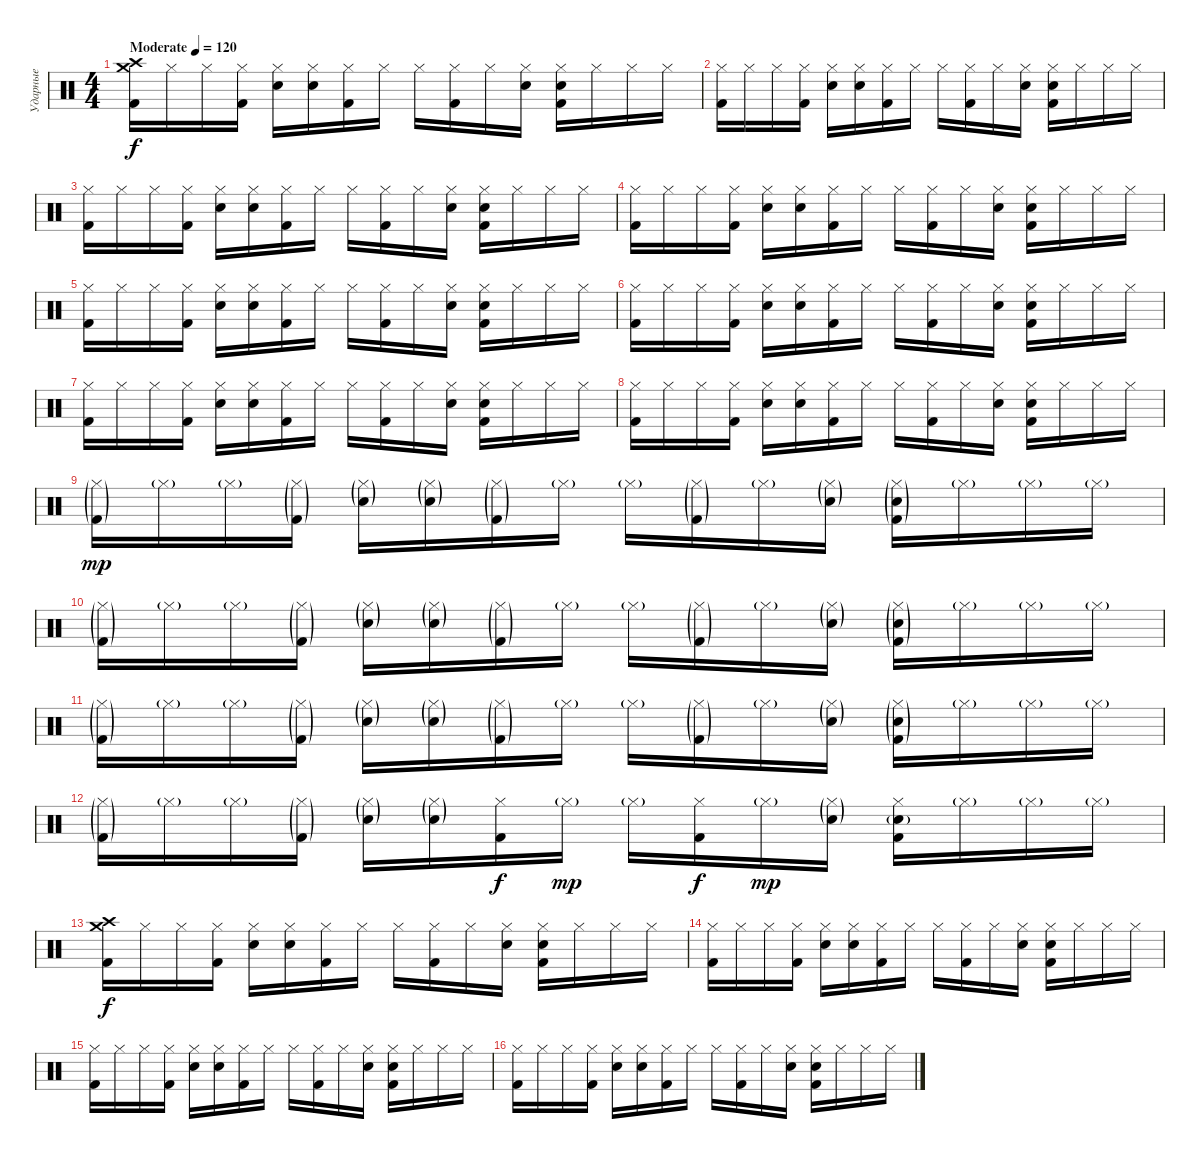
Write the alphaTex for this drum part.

\track ("Ударные" "Ударные") {instrument percussion}
\staff {score}
\articulation defaults
\ts (4 4)
\tempo (120 "Moderate")
\clef neutral
\ks c
("Kick (hit) 2" "Crash high (hit)" "Crash medium (hit)").16{dy f} "Hi-Hat (closed)".16 "Hi-Hat (closed)".16 ("Kick (hit) 2" "Hi-Hat (closed)").16 ("Hi-Hat (closed)" "Electric Snare (hit)").16 ("Hi-Hat (closed)" "Electric Snare (hit)").16 ("Kick (hit) 2" "Hi-Hat (closed)").16 "Hi-Hat (closed)".16 "Hi-Hat (closed)".16 ("Kick (hit) 2" "Hi-Hat (closed)").16 "Hi-Hat (closed)".16 ("Hi-Hat (closed)" "Electric Snare (hit)").16 ("Kick (hit) 2" "Hi-Hat (closed)" "Electric Snare (hit)").16 "Hi-Hat (closed)".16 "Hi-Hat (closed)".16 "Hi-Hat (closed)".16 |
("Kick (hit) 2" "Hi-Hat (closed)").16 "Hi-Hat (closed)".16 "Hi-Hat (closed)".16 ("Kick (hit) 2" "Hi-Hat (closed)").16 ("Hi-Hat (closed)" "Electric Snare (hit)").16 ("Hi-Hat (closed)" "Electric Snare (hit)").16 ("Kick (hit) 2" "Hi-Hat (closed)").16 "Hi-Hat (closed)".16 "Hi-Hat (closed)".16 ("Kick (hit) 2" "Hi-Hat (closed)").16 "Hi-Hat (closed)".16 ("Hi-Hat (closed)" "Electric Snare (hit)").16 ("Kick (hit) 2" "Hi-Hat (closed)" "Electric Snare (hit)").16 "Hi-Hat (closed)".16 "Hi-Hat (closed)".16 "Hi-Hat (closed)".16 |
("Kick (hit) 2" "Hi-Hat (closed)").16 "Hi-Hat (closed)".16 "Hi-Hat (closed)".16 ("Kick (hit) 2" "Hi-Hat (closed)").16 ("Hi-Hat (closed)" "Electric Snare (hit)").16 ("Hi-Hat (closed)" "Electric Snare (hit)").16 ("Kick (hit) 2" "Hi-Hat (closed)").16 "Hi-Hat (closed)".16 "Hi-Hat (closed)".16 ("Kick (hit) 2" "Hi-Hat (closed)").16 "Hi-Hat (closed)".16 ("Hi-Hat (closed)" "Electric Snare (hit)").16 ("Kick (hit) 2" "Hi-Hat (closed)" "Electric Snare (hit)").16 "Hi-Hat (closed)".16 "Hi-Hat (closed)".16 "Hi-Hat (closed)".16 |
("Kick (hit) 2" "Hi-Hat (closed)").16 "Hi-Hat (closed)".16 "Hi-Hat (closed)".16 ("Kick (hit) 2" "Hi-Hat (closed)").16 ("Hi-Hat (closed)" "Electric Snare (hit)").16 ("Hi-Hat (closed)" "Electric Snare (hit)").16 ("Kick (hit) 2" "Hi-Hat (closed)").16 "Hi-Hat (closed)".16 "Hi-Hat (closed)".16 ("Kick (hit) 2" "Hi-Hat (closed)").16 "Hi-Hat (closed)".16 ("Hi-Hat (closed)" "Electric Snare (hit)").16 ("Kick (hit) 2" "Hi-Hat (closed)" "Electric Snare (hit)").16 "Hi-Hat (closed)".16 "Hi-Hat (closed)".16 "Hi-Hat (closed)".16 |
("Kick (hit) 2" "Hi-Hat (closed)").16 "Hi-Hat (closed)".16 "Hi-Hat (closed)".16 ("Kick (hit) 2" "Hi-Hat (closed)").16 ("Hi-Hat (closed)" "Electric Snare (hit)").16 ("Hi-Hat (closed)" "Electric Snare (hit)").16 ("Kick (hit) 2" "Hi-Hat (closed)").16 "Hi-Hat (closed)".16 "Hi-Hat (closed)".16 ("Kick (hit) 2" "Hi-Hat (closed)").16 "Hi-Hat (closed)".16 ("Hi-Hat (closed)" "Electric Snare (hit)").16 ("Kick (hit) 2" "Hi-Hat (closed)" "Electric Snare (hit)").16 "Hi-Hat (closed)".16 "Hi-Hat (closed)".16 "Hi-Hat (closed)".16 |
("Kick (hit) 2" "Hi-Hat (closed)").16 "Hi-Hat (closed)".16 "Hi-Hat (closed)".16 ("Kick (hit) 2" "Hi-Hat (closed)").16 ("Hi-Hat (closed)" "Electric Snare (hit)").16 ("Hi-Hat (closed)" "Electric Snare (hit)").16 ("Kick (hit) 2" "Hi-Hat (closed)").16 "Hi-Hat (closed)".16 "Hi-Hat (closed)".16 ("Kick (hit) 2" "Hi-Hat (closed)").16 "Hi-Hat (closed)".16 ("Hi-Hat (closed)" "Electric Snare (hit)").16 ("Kick (hit) 2" "Hi-Hat (closed)" "Electric Snare (hit)").16 "Hi-Hat (closed)".16 "Hi-Hat (closed)".16 "Hi-Hat (closed)".16 |
("Kick (hit) 2" "Hi-Hat (closed)").16 "Hi-Hat (closed)".16 "Hi-Hat (closed)".16 ("Kick (hit) 2" "Hi-Hat (closed)").16 ("Hi-Hat (closed)" "Electric Snare (hit)").16 ("Hi-Hat (closed)" "Electric Snare (hit)").16 ("Kick (hit) 2" "Hi-Hat (closed)").16 "Hi-Hat (closed)".16 "Hi-Hat (closed)".16 ("Kick (hit) 2" "Hi-Hat (closed)").16 "Hi-Hat (closed)".16 ("Hi-Hat (closed)" "Electric Snare (hit)").16 ("Kick (hit) 2" "Hi-Hat (closed)" "Electric Snare (hit)").16 "Hi-Hat (closed)".16 "Hi-Hat (closed)".16 "Hi-Hat (closed)".16 |
("Kick (hit) 2" "Hi-Hat (closed)").16 "Hi-Hat (closed)".16 "Hi-Hat (closed)".16 ("Kick (hit) 2" "Hi-Hat (closed)").16 ("Hi-Hat (closed)" "Electric Snare (hit)").16 ("Hi-Hat (closed)" "Electric Snare (hit)").16 ("Kick (hit) 2" "Hi-Hat (closed)").16 "Hi-Hat (closed)".16 "Hi-Hat (closed)".16 ("Kick (hit) 2" "Hi-Hat (closed)").16 "Hi-Hat (closed)".16 ("Hi-Hat (closed)" "Electric Snare (hit)").16 ("Kick (hit) 2" "Hi-Hat (closed)" "Electric Snare (hit)").16 "Hi-Hat (closed)".16 "Hi-Hat (closed)".16 "Hi-Hat (closed)".16 |
("Kick (hit) 2"{g} "Hi-Hat (closed)"{g}).16{dy mp} "Hi-Hat (closed)"{g}.16 "Hi-Hat (closed)"{g}.16 ("Kick (hit) 2"{g} "Hi-Hat (closed)"{g}).16 ("Hi-Hat (closed)"{g} "Electric Snare (hit)"{g}).16 ("Hi-Hat (closed)"{g} "Electric Snare (hit)"{g}).16 ("Kick (hit) 2"{g} "Hi-Hat (closed)"{g}).16 "Hi-Hat (closed)"{g}.16 "Hi-Hat (closed)"{g}.16 ("Kick (hit) 2"{g} "Hi-Hat (closed)"{g}).16 "Hi-Hat (closed)"{g}.16 ("Hi-Hat (closed)"{g} "Electric Snare (hit)"{g}).16 ("Kick (hit) 2"{g} "Hi-Hat (closed)"{g} "Electric Snare (hit)"{g}).16 "Hi-Hat (closed)"{g}.16 "Hi-Hat (closed)"{g}.16 "Hi-Hat (closed)"{g}.16 |
("Kick (hit) 2"{g} "Hi-Hat (closed)"{g}).16 "Hi-Hat (closed)"{g}.16 "Hi-Hat (closed)"{g}.16 ("Kick (hit) 2"{g} "Hi-Hat (closed)"{g}).16 ("Hi-Hat (closed)"{g} "Electric Snare (hit)"{g}).16 ("Hi-Hat (closed)"{g} "Electric Snare (hit)"{g}).16 ("Kick (hit) 2"{g} "Hi-Hat (closed)"{g}).16 "Hi-Hat (closed)"{g}.16 "Hi-Hat (closed)"{g}.16 ("Kick (hit) 2"{g} "Hi-Hat (closed)"{g}).16 "Hi-Hat (closed)"{g}.16 ("Hi-Hat (closed)"{g} "Electric Snare (hit)"{g}).16 ("Kick (hit) 2"{g} "Hi-Hat (closed)"{g} "Electric Snare (hit)"{g}).16 "Hi-Hat (closed)"{g}.16 "Hi-Hat (closed)"{g}.16 "Hi-Hat (closed)"{g}.16 |
("Kick (hit) 2"{g} "Hi-Hat (closed)"{g}).16 "Hi-Hat (closed)"{g}.16 "Hi-Hat (closed)"{g}.16 ("Kick (hit) 2"{g} "Hi-Hat (closed)"{g}).16 ("Hi-Hat (closed)"{g} "Electric Snare (hit)"{g}).16 ("Hi-Hat (closed)"{g} "Electric Snare (hit)"{g}).16 ("Kick (hit) 2"{g} "Hi-Hat (closed)"{g}).16 "Hi-Hat (closed)"{g}.16 "Hi-Hat (closed)"{g}.16 ("Kick (hit) 2"{g} "Hi-Hat (closed)"{g}).16 "Hi-Hat (closed)"{g}.16 ("Hi-Hat (closed)"{g} "Electric Snare (hit)"{g}).16 ("Kick (hit) 2"{g} "Hi-Hat (closed)"{g} "Electric Snare (hit)"{g}).16 "Hi-Hat (closed)"{g}.16 "Hi-Hat (closed)"{g}.16 "Hi-Hat (closed)"{g}.16 |
("Kick (hit) 2"{g} "Hi-Hat (closed)"{g}).16 "Hi-Hat (closed)"{g}.16 "Hi-Hat (closed)"{g}.16 ("Kick (hit) 2"{g} "Hi-Hat (closed)"{g}).16 ("Hi-Hat (closed)"{g} "Electric Snare (hit)"{g}).16 ("Hi-Hat (closed)"{g} "Electric Snare (hit)"{g}).16 ("Kick (hit) 2" "Hi-Hat (closed)").16{dy f} "Hi-Hat (closed)"{g}.16{dy mp} "Hi-Hat (closed)"{g}.16 ("Kick (hit) 2" "Hi-Hat (closed)").16{dy f} "Hi-Hat (closed)"{g}.16{dy mp} ("Hi-Hat (closed)"{g} "Electric Snare (hit)"{g}).16 ("Kick (hit) 2" "Hi-Hat (closed)" "Electric Snare (hit)"{g}).16 "Hi-Hat (closed)"{g}.16 "Hi-Hat (closed)"{g}.16 "Hi-Hat (closed)"{g}.16 |
("Kick (hit) 2" "Crash high (hit)" "Crash medium (hit)").16{dy f} "Hi-Hat (closed)".16 "Hi-Hat (closed)".16 ("Kick (hit) 2" "Hi-Hat (closed)").16 ("Hi-Hat (closed)" "Electric Snare (hit)").16 ("Hi-Hat (closed)" "Electric Snare (hit)").16 ("Kick (hit) 2" "Hi-Hat (closed)").16 "Hi-Hat (closed)".16 "Hi-Hat (closed)".16 ("Kick (hit) 2" "Hi-Hat (closed)").16 "Hi-Hat (closed)".16 ("Hi-Hat (closed)" "Electric Snare (hit)").16 ("Kick (hit) 2" "Hi-Hat (closed)" "Electric Snare (hit)").16 "Hi-Hat (closed)".16 "Hi-Hat (closed)".16 "Hi-Hat (closed)".16 |
("Kick (hit) 2" "Hi-Hat (closed)").16 "Hi-Hat (closed)".16 "Hi-Hat (closed)".16 ("Kick (hit) 2" "Hi-Hat (closed)").16 ("Hi-Hat (closed)" "Electric Snare (hit)").16 ("Hi-Hat (closed)" "Electric Snare (hit)").16 ("Kick (hit) 2" "Hi-Hat (closed)").16 "Hi-Hat (closed)".16 "Hi-Hat (closed)".16 ("Kick (hit) 2" "Hi-Hat (closed)").16 "Hi-Hat (closed)".16 ("Hi-Hat (closed)" "Electric Snare (hit)").16 ("Kick (hit) 2" "Hi-Hat (closed)" "Electric Snare (hit)").16 "Hi-Hat (closed)".16 "Hi-Hat (closed)".16 "Hi-Hat (closed)".16 |
("Kick (hit) 2" "Hi-Hat (closed)").16 "Hi-Hat (closed)".16 "Hi-Hat (closed)".16 ("Kick (hit) 2" "Hi-Hat (closed)").16 ("Hi-Hat (closed)" "Electric Snare (hit)").16 ("Hi-Hat (closed)" "Electric Snare (hit)").16 ("Kick (hit) 2" "Hi-Hat (closed)").16 "Hi-Hat (closed)".16 "Hi-Hat (closed)".16 ("Kick (hit) 2" "Hi-Hat (closed)").16 "Hi-Hat (closed)".16 ("Hi-Hat (closed)" "Electric Snare (hit)").16 ("Kick (hit) 2" "Hi-Hat (closed)" "Electric Snare (hit)").16 "Hi-Hat (closed)".16 "Hi-Hat (closed)".16 "Hi-Hat (closed)".16 |
("Kick (hit) 2" "Hi-Hat (closed)").16 "Hi-Hat (closed)".16 "Hi-Hat (closed)".16 ("Kick (hit) 2" "Hi-Hat (closed)").16 ("Hi-Hat (closed)" "Electric Snare (hit)").16 ("Hi-Hat (closed)" "Electric Snare (hit)").16 ("Kick (hit) 2" "Hi-Hat (closed)").16 "Hi-Hat (closed)".16 "Hi-Hat (closed)".16 ("Kick (hit) 2" "Hi-Hat (closed)").16 "Hi-Hat (closed)".16 ("Hi-Hat (closed)" "Electric Snare (hit)").16 ("Kick (hit) 2" "Hi-Hat (closed)" "Electric Snare (hit)").16 "Hi-Hat (closed)".16 "Hi-Hat (closed)".16 "Hi-Hat (closed)".16
